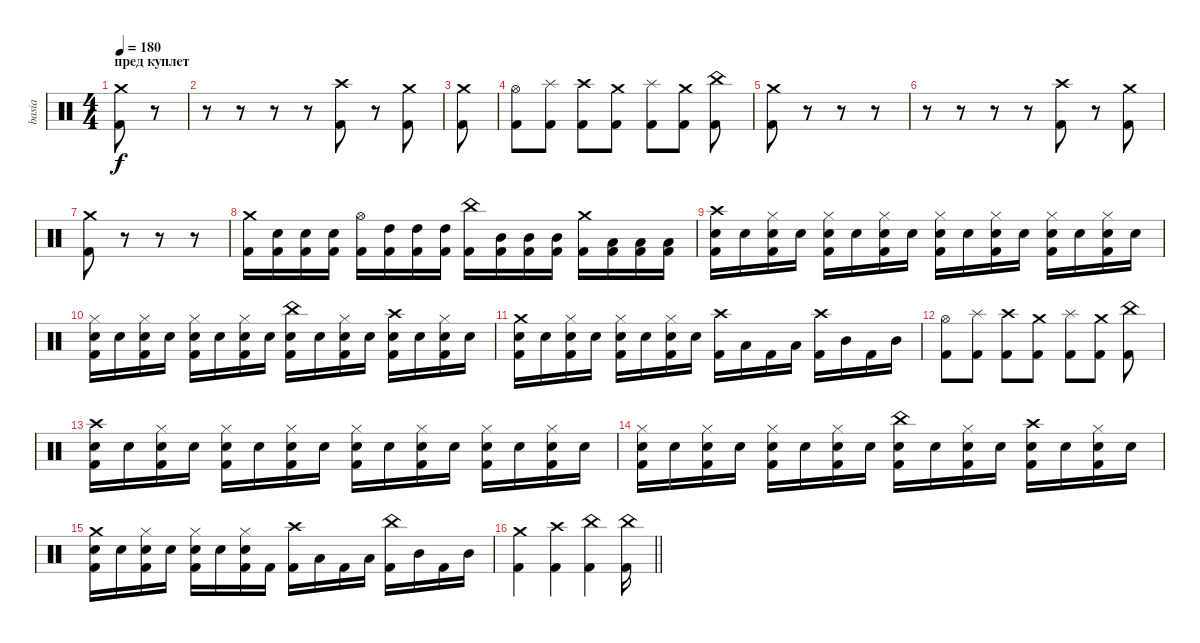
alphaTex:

\track ("basia" "basia") {instrument percussion}
\staff {score}
\articulation defaults
\ts (4 4)
\section ("" "пред куплет")
\tempo 180
\clef neutral
\ks c
("Crash medium (hit)" "Kick (hit) 2").8{dy f} r.8 |
r.8 r.8 r.8 r.8 ("Crash high (hit)" "Kick (hit) 2").8 r.8 ("Crash medium (hit)" "Kick (hit) 2").8 |
("Crash medium (hit)" "Kick (hit) 2").8 |
("Hi-Hat (open)" "Kick (hit) 2").8 ("Splash (hit)" "Kick (hit) 2").8 ("Crash high (hit)" "Kick (hit) 2").8 ("Crash medium (hit)" "Kick (hit) 2").8 ("Splash (hit)" "Kick (hit) 2").8 ("Crash medium (hit)" "Kick (hit) 2").8 ("China (hit)" "Kick (hit) 2").8 |
("Crash medium (hit)" "Kick (hit) 2").8 r.8 r.8 r.8 |
r.8 r.8 r.8 r.8 ("Crash high (hit)" "Kick (hit) 2").8 r.8 ("Crash medium (hit)" "Kick (hit) 2").8 |
("Crash medium (hit)" "Kick (hit) 2").8 r.8 r.8 r.8 |
("Crash medium (hit)" "Kick (hit) 2").16 ("Snare (hit) 2" "Kick (hit) 2").16 ("Snare (hit) 2" "Kick (hit) 2").16 ("Snare (hit) 2" "Kick (hit) 2").16 ("Hi-Hat (open)" "Kick (hit) 2").16 ("High Tom (hit)" "Kick (hit) 2").16 ("High Tom (hit)" "Kick (hit) 2").16 ("High Tom (hit)" "Kick (hit) 2").16 ("China (hit)" "Kick (hit) 2").16 ("Mid Tom (hit)" "Kick (hit) 2").16 ("Mid Tom (hit)" "Kick (hit) 2").16 ("Mid Tom (hit)" "Kick (hit) 2").16 ("Crash medium (hit)" "Kick (hit) 2").16 ("Low Tom (hit)" "Kick (hit) 2").16 ("Low Tom (hit)" "Kick (hit) 2").16 ("Low Tom (hit)" "Kick (hit) 2").16 |
("Crash high (hit)" "Snare (hit) 2" "Kick (hit) 2").16 "Snare (hit) 2".16 ("Hi-Hat (closed)" "Snare (hit) 2" "Kick (hit) 2").16 "Snare (hit) 2".16 ("Hi-Hat (closed)" "Snare (hit) 2" "Kick (hit) 2").16 "Snare (hit) 2".16 ("Hi-Hat (closed)" "Snare (hit) 2" "Kick (hit) 2").16 "Snare (hit) 2".16 ("Hi-Hat (closed)" "Snare (hit) 2" "Kick (hit) 2").16 "Snare (hit) 2".16 ("Hi-Hat (closed)" "Snare (hit) 2" "Kick (hit) 2").16 "Snare (hit) 2".16 ("Hi-Hat (closed)" "Snare (hit) 2" "Kick (hit) 2").16 "Snare (hit) 2".16 ("Hi-Hat (closed)" "Snare (hit) 2" "Kick (hit) 2").16 "Snare (hit) 2".16 |
("Hi-Hat (closed)" "Snare (hit) 2" "Kick (hit) 2").16 "Snare (hit) 2".16 ("Hi-Hat (closed)" "Snare (hit) 2" "Kick (hit) 2").16 "Snare (hit) 2".16 ("Hi-Hat (closed)" "Snare (hit) 2" "Kick (hit) 2").16 "Snare (hit) 2".16 ("Hi-Hat (closed)" "Snare (hit) 2" "Kick (hit) 2").16 "Snare (hit) 2".16 ("China (hit)" "Snare (hit) 2" "Kick (hit) 2").16 "Snare (hit) 2".16 ("Hi-Hat (closed)" "Snare (hit) 2" "Kick (hit) 2").16 "Snare (hit) 2".16 ("Crash high (hit)" "Snare (hit) 2" "Kick (hit) 2").16 "Snare (hit) 2".16 ("Hi-Hat (closed)" "Snare (hit) 2" "Kick (hit) 2").16 "Snare (hit) 2".16 |
("Crash medium (hit)" "Snare (hit) 2" "Kick (hit) 2").16 "Snare (hit) 2".16 ("Hi-Hat (closed)" "Snare (hit) 2" "Kick (hit) 2").16 "Snare (hit) 2".16 ("Hi-Hat (closed)" "Snare (hit) 2" "Kick (hit) 2").16 "Snare (hit) 2".16 ("Hi-Hat (closed)" "Snare (hit) 2" "Kick (hit) 2").16 "Snare (hit) 2".16 ("Crash high (hit)" "Kick (hit) 2").16 "Low Tom (hit)".16 "Kick (hit) 2".16 "Low Tom (hit)".16 ("Crash high (hit)" "Kick (hit) 2").16 "Mid Tom (hit)".16 "Kick (hit) 2".16 "Mid Tom (hit)".16 |
("Hi-Hat (open)" "Kick (hit) 2").8 ("Splash (hit)" "Kick (hit) 2").8 ("Crash high (hit)" "Kick (hit) 2").8 ("Crash medium (hit)" "Kick (hit) 2").8 ("Splash (hit)" "Kick (hit) 2").8 ("Crash medium (hit)" "Kick (hit) 2").8 ("China (hit)" "Kick (hit) 2").8 |
("Crash high (hit)" "Snare (hit) 2" "Kick (hit) 2").16 "Snare (hit) 2".16 ("Hi-Hat (closed)" "Snare (hit) 2" "Kick (hit) 2").16 "Snare (hit) 2".16 ("Hi-Hat (closed)" "Snare (hit) 2" "Kick (hit) 2").16 "Snare (hit) 2".16 ("Hi-Hat (closed)" "Snare (hit) 2" "Kick (hit) 2").16 "Snare (hit) 2".16 ("Hi-Hat (closed)" "Snare (hit) 2" "Kick (hit) 2").16 "Snare (hit) 2".16 ("Hi-Hat (closed)" "Snare (hit) 2" "Kick (hit) 2").16 "Snare (hit) 2".16 ("Hi-Hat (closed)" "Snare (hit) 2" "Kick (hit) 2").16 "Snare (hit) 2".16 ("Hi-Hat (closed)" "Snare (hit) 2" "Kick (hit) 2").16 "Snare (hit) 2".16 |
("Hi-Hat (closed)" "Snare (hit) 2" "Kick (hit) 2").16 "Snare (hit) 2".16 ("Hi-Hat (closed)" "Snare (hit) 2" "Kick (hit) 2").16 "Snare (hit) 2".16 ("Hi-Hat (closed)" "Snare (hit) 2" "Kick (hit) 2").16 "Snare (hit) 2".16 ("Hi-Hat (closed)" "Snare (hit) 2" "Kick (hit) 2").16 "Snare (hit) 2".16 ("China (hit)" "Snare (hit) 2" "Kick (hit) 2").16 "Snare (hit) 2".16 ("Hi-Hat (closed)" "Snare (hit) 2" "Kick (hit) 2").16 "Snare (hit) 2".16 ("Crash high (hit)" "Snare (hit) 2" "Kick (hit) 2").16 "Snare (hit) 2".16 ("Hi-Hat (closed)" "Snare (hit) 2" "Kick (hit) 2").16 "Snare (hit) 2".16 |
("Crash medium (hit)" "Snare (hit) 2" "Kick (hit) 2").16 "Snare (hit) 2".16 ("Hi-Hat (closed)" "Snare (hit) 2" "Kick (hit) 2").16 "Snare (hit) 2".16 ("Hi-Hat (closed)" "Snare (hit) 2" "Kick (hit) 2").16 "Snare (hit) 2".16 ("Hi-Hat (closed)" "Snare (hit) 2" "Kick (hit) 2").16 "Kick (hit) 2".16 ("Crash high (hit)" "Kick (hit) 2").16 "Low Tom (hit)".16 "Kick (hit) 2".16 "Low Tom (hit)".16 ("China (hit)" "Kick (hit) 2").16 "Mid Tom (hit)".16 "Kick (hit) 2".16 "Mid Tom (hit)".16 |
\barLineRight lightlight
("Crash medium (hit)" "Kick (hit) 2").4 ("Crash high (hit)" "Kick (hit) 2").4 ("China (hit)" "Kick (hit) 2").4 ("China (hit)" "Kick (hit) 2").16
